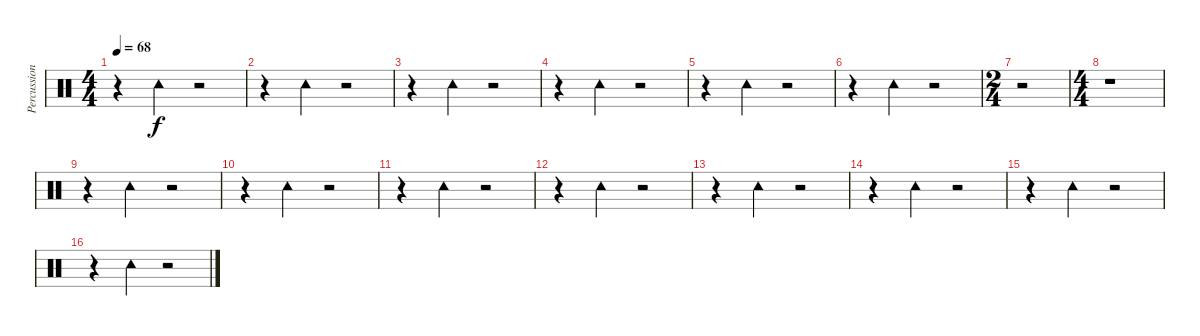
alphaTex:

\track ("Percussion" "Percussion") {instrument percussion}
\staff {score}
\articulation defaults
\ts (4 4)
\tempo 68
\clef neutral
\ks c
r.4{dy f} "Tambourine (hit)".4 r.2 |
r.4 "Tambourine (hit)".4 r.2 |
r.4 "Tambourine (hit)".4 r.2 |
r.4 "Tambourine (hit)".4 r.2 |
r.4 "Tambourine (hit)".4 r.2 |
r.4 "Tambourine (hit)".4 r.2 |
\ts (2 4)
r.2 |
\ts (4 4)
r.1 |
r.4 "Tambourine (hit)".4 r.2 |
r.4 "Tambourine (hit)".4 r.2 |
r.4 "Tambourine (hit)".4 r.2 |
r.4 "Tambourine (hit)".4 r.2 |
r.4 "Tambourine (hit)".4 r.2 |
r.4 "Tambourine (hit)".4 r.2 |
r.4 "Tambourine (hit)".4 r.2 |
r.4 "Tambourine (hit)".4 r.2
